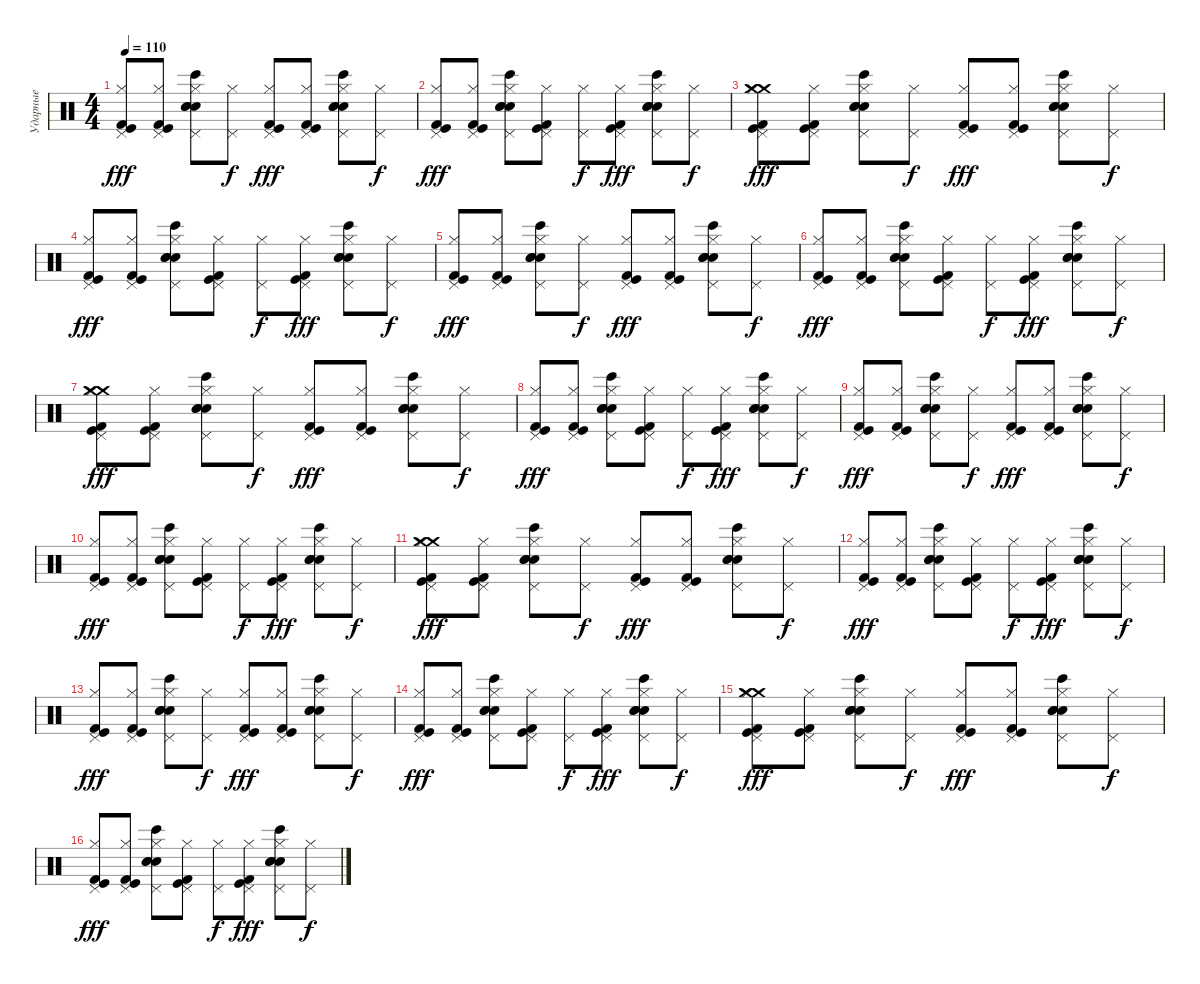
\track ("Ударные" "Ударные") {instrument percussion}
\staff {score}
\articulation defaults
\ts (4 4)
\tempo 110
\clef neutral
\ks c
("Kick (hit) 2" "Kick (hit)" "Hi-Hat (closed)" "Pedal Hi-Hat (hit)").8{dy fff} ("Kick (hit) 2" "Kick (hit)" "Hi-Hat (closed)" "Pedal Hi-Hat (hit)").8 ("Bongo High (hit)" "Snare (hit) 2" "Snare (hit) 2" "Snare (hit) 2" "Hi-Hat (closed)" "Pedal Hi-Hat (hit)").8 ("Hi-Hat (closed)" "Pedal Hi-Hat (hit)").8{dy f} ("Kick (hit) 2" "Kick (hit)" "Hi-Hat (closed)" "Pedal Hi-Hat (hit)").8{dy fff} ("Kick (hit) 2" "Kick (hit)" "Hi-Hat (closed)" "Pedal Hi-Hat (hit)").8 ("Bongo High (hit)" "Snare (hit) 2" "Snare (hit) 2" "Snare (hit) 2" "Hi-Hat (closed)" "Pedal Hi-Hat (hit)").8 ("Hi-Hat (closed)" "Pedal Hi-Hat (hit)").8{dy f} |
("Kick (hit) 2" "Kick (hit)" "Hi-Hat (closed)" "Pedal Hi-Hat (hit)").8{dy fff} ("Kick (hit) 2" "Kick (hit)" "Hi-Hat (closed)" "Pedal Hi-Hat (hit)").8 ("Bongo High (hit)" "Snare (hit) 2" "Snare (hit) 2" "Snare (hit) 2" "Hi-Hat (closed)" "Pedal Hi-Hat (hit)").8 ("Kick (hit) 2" "Kick (hit)" "Hi-Hat (closed)" "Pedal Hi-Hat (hit)").8 ("Hi-Hat (closed)" "Pedal Hi-Hat (hit)").8{dy f} ("Kick (hit) 2" "Kick (hit)" "Hi-Hat (closed)" "Pedal Hi-Hat (hit)").8{dy fff} ("Bongo High (hit)" "Snare (hit) 2" "Snare (hit) 2" "Snare (hit) 2" "Hi-Hat (closed)" "Pedal Hi-Hat (hit)").8 ("Hi-Hat (closed)" "Pedal Hi-Hat (hit)").8{dy f} |
("Crash medium (hit)" "Crash medium (hit)" "Kick (hit) 2" "Kick (hit)" "Hi-Hat (closed)" "Pedal Hi-Hat (hit)").8{dy fff} ("Kick (hit) 2" "Kick (hit)" "Hi-Hat (closed)" "Pedal Hi-Hat (hit)").8 ("Bongo High (hit)" "Snare (hit) 2" "Snare (hit) 2" "Snare (hit) 2" "Hi-Hat (closed)" "Pedal Hi-Hat (hit)").8 ("Hi-Hat (closed)" "Pedal Hi-Hat (hit)").8{dy f} ("Kick (hit) 2" "Kick (hit)" "Hi-Hat (closed)" "Pedal Hi-Hat (hit)").8{dy fff} ("Kick (hit) 2" "Kick (hit)" "Hi-Hat (closed)" "Pedal Hi-Hat (hit)").8 ("Bongo High (hit)" "Snare (hit) 2" "Snare (hit) 2" "Snare (hit) 2" "Hi-Hat (closed)" "Pedal Hi-Hat (hit)").8 ("Hi-Hat (closed)" "Pedal Hi-Hat (hit)").8{dy f} |
("Kick (hit) 2" "Kick (hit)" "Hi-Hat (closed)" "Pedal Hi-Hat (hit)").8{dy fff} ("Kick (hit) 2" "Kick (hit)" "Hi-Hat (closed)" "Pedal Hi-Hat (hit)").8 ("Bongo High (hit)" "Snare (hit) 2" "Snare (hit) 2" "Snare (hit) 2" "Hi-Hat (closed)" "Pedal Hi-Hat (hit)").8 ("Kick (hit) 2" "Kick (hit)" "Hi-Hat (closed)" "Pedal Hi-Hat (hit)").8 ("Hi-Hat (closed)" "Pedal Hi-Hat (hit)").8{dy f} ("Kick (hit) 2" "Kick (hit)" "Hi-Hat (closed)" "Pedal Hi-Hat (hit)").8{dy fff} ("Bongo High (hit)" "Snare (hit) 2" "Snare (hit) 2" "Snare (hit) 2" "Hi-Hat (closed)" "Pedal Hi-Hat (hit)").8 ("Hi-Hat (closed)" "Pedal Hi-Hat (hit)").8{dy f} |
("Kick (hit) 2" "Kick (hit)" "Hi-Hat (closed)" "Pedal Hi-Hat (hit)").8{dy fff} ("Kick (hit) 2" "Kick (hit)" "Hi-Hat (closed)" "Pedal Hi-Hat (hit)").8 ("Bongo High (hit)" "Snare (hit) 2" "Snare (hit) 2" "Snare (hit) 2" "Hi-Hat (closed)" "Pedal Hi-Hat (hit)").8 ("Hi-Hat (closed)" "Pedal Hi-Hat (hit)").8{dy f} ("Kick (hit) 2" "Kick (hit)" "Hi-Hat (closed)" "Pedal Hi-Hat (hit)").8{dy fff} ("Kick (hit) 2" "Kick (hit)" "Hi-Hat (closed)" "Pedal Hi-Hat (hit)").8 ("Bongo High (hit)" "Snare (hit) 2" "Snare (hit) 2" "Snare (hit) 2" "Hi-Hat (closed)" "Pedal Hi-Hat (hit)").8 ("Hi-Hat (closed)" "Pedal Hi-Hat (hit)").8{dy f} |
("Kick (hit) 2" "Kick (hit)" "Hi-Hat (closed)" "Pedal Hi-Hat (hit)").8{dy fff} ("Kick (hit) 2" "Kick (hit)" "Hi-Hat (closed)" "Pedal Hi-Hat (hit)").8 ("Bongo High (hit)" "Snare (hit) 2" "Snare (hit) 2" "Snare (hit) 2" "Hi-Hat (closed)" "Pedal Hi-Hat (hit)").8 ("Kick (hit) 2" "Kick (hit)" "Hi-Hat (closed)" "Pedal Hi-Hat (hit)").8 ("Hi-Hat (closed)" "Pedal Hi-Hat (hit)").8{dy f} ("Kick (hit) 2" "Kick (hit)" "Hi-Hat (closed)" "Pedal Hi-Hat (hit)").8{dy fff} ("Bongo High (hit)" "Snare (hit) 2" "Snare (hit) 2" "Snare (hit) 2" "Hi-Hat (closed)" "Pedal Hi-Hat (hit)").8 ("Hi-Hat (closed)" "Pedal Hi-Hat (hit)").8{dy f} |
("Crash medium (hit)" "Crash medium (hit)" "Kick (hit) 2" "Kick (hit)" "Hi-Hat (closed)" "Pedal Hi-Hat (hit)").8{dy fff} ("Kick (hit) 2" "Kick (hit)" "Hi-Hat (closed)" "Pedal Hi-Hat (hit)").8 ("Bongo High (hit)" "Snare (hit) 2" "Snare (hit) 2" "Snare (hit) 2" "Hi-Hat (closed)" "Pedal Hi-Hat (hit)").8 ("Hi-Hat (closed)" "Pedal Hi-Hat (hit)").8{dy f} ("Kick (hit) 2" "Kick (hit)" "Hi-Hat (closed)" "Pedal Hi-Hat (hit)").8{dy fff} ("Kick (hit) 2" "Kick (hit)" "Hi-Hat (closed)" "Pedal Hi-Hat (hit)").8 ("Bongo High (hit)" "Snare (hit) 2" "Snare (hit) 2" "Snare (hit) 2" "Hi-Hat (closed)" "Pedal Hi-Hat (hit)").8 ("Hi-Hat (closed)" "Pedal Hi-Hat (hit)").8{dy f} |
("Kick (hit) 2" "Kick (hit)" "Hi-Hat (closed)" "Pedal Hi-Hat (hit)").8{dy fff} ("Kick (hit) 2" "Kick (hit)" "Hi-Hat (closed)" "Pedal Hi-Hat (hit)").8 ("Bongo High (hit)" "Snare (hit) 2" "Snare (hit) 2" "Snare (hit) 2" "Hi-Hat (closed)" "Pedal Hi-Hat (hit)").8 ("Kick (hit) 2" "Kick (hit)" "Hi-Hat (closed)" "Pedal Hi-Hat (hit)").8 ("Hi-Hat (closed)" "Pedal Hi-Hat (hit)").8{dy f} ("Kick (hit) 2" "Kick (hit)" "Hi-Hat (closed)" "Pedal Hi-Hat (hit)").8{dy fff} ("Bongo High (hit)" "Snare (hit) 2" "Snare (hit) 2" "Snare (hit) 2" "Hi-Hat (closed)" "Pedal Hi-Hat (hit)").8 ("Hi-Hat (closed)" "Pedal Hi-Hat (hit)").8{dy f} |
("Kick (hit) 2" "Kick (hit)" "Hi-Hat (closed)" "Pedal Hi-Hat (hit)").8{dy fff} ("Kick (hit) 2" "Kick (hit)" "Hi-Hat (closed)" "Pedal Hi-Hat (hit)").8 ("Bongo High (hit)" "Snare (hit) 2" "Snare (hit) 2" "Snare (hit) 2" "Hi-Hat (closed)" "Pedal Hi-Hat (hit)").8 ("Hi-Hat (closed)" "Pedal Hi-Hat (hit)").8{dy f} ("Kick (hit) 2" "Kick (hit)" "Hi-Hat (closed)" "Pedal Hi-Hat (hit)").8{dy fff} ("Kick (hit) 2" "Kick (hit)" "Hi-Hat (closed)" "Pedal Hi-Hat (hit)").8 ("Bongo High (hit)" "Snare (hit) 2" "Snare (hit) 2" "Snare (hit) 2" "Hi-Hat (closed)" "Pedal Hi-Hat (hit)").8 ("Hi-Hat (closed)" "Pedal Hi-Hat (hit)").8{dy f} |
("Kick (hit) 2" "Kick (hit)" "Hi-Hat (closed)" "Pedal Hi-Hat (hit)").8{dy fff} ("Kick (hit) 2" "Kick (hit)" "Hi-Hat (closed)" "Pedal Hi-Hat (hit)").8 ("Bongo High (hit)" "Snare (hit) 2" "Snare (hit) 2" "Snare (hit) 2" "Hi-Hat (closed)" "Pedal Hi-Hat (hit)").8 ("Kick (hit) 2" "Kick (hit)" "Hi-Hat (closed)" "Pedal Hi-Hat (hit)").8 ("Hi-Hat (closed)" "Pedal Hi-Hat (hit)").8{dy f} ("Kick (hit) 2" "Kick (hit)" "Hi-Hat (closed)" "Pedal Hi-Hat (hit)").8{dy fff} ("Bongo High (hit)" "Snare (hit) 2" "Snare (hit) 2" "Snare (hit) 2" "Hi-Hat (closed)" "Pedal Hi-Hat (hit)").8 ("Hi-Hat (closed)" "Pedal Hi-Hat (hit)").8{dy f} |
("Crash medium (hit)" "Crash medium (hit)" "Kick (hit) 2" "Kick (hit)" "Hi-Hat (closed)" "Pedal Hi-Hat (hit)").8{dy fff} ("Kick (hit) 2" "Kick (hit)" "Hi-Hat (closed)" "Pedal Hi-Hat (hit)").8 ("Bongo High (hit)" "Snare (hit) 2" "Snare (hit) 2" "Snare (hit) 2" "Hi-Hat (closed)" "Pedal Hi-Hat (hit)").8 ("Hi-Hat (closed)" "Pedal Hi-Hat (hit)").8{dy f} ("Kick (hit) 2" "Kick (hit)" "Hi-Hat (closed)" "Pedal Hi-Hat (hit)").8{dy fff} ("Kick (hit) 2" "Kick (hit)" "Hi-Hat (closed)" "Pedal Hi-Hat (hit)").8 ("Bongo High (hit)" "Snare (hit) 2" "Snare (hit) 2" "Snare (hit) 2" "Hi-Hat (closed)" "Pedal Hi-Hat (hit)").8 ("Hi-Hat (closed)" "Pedal Hi-Hat (hit)").8{dy f} |
("Kick (hit) 2" "Kick (hit)" "Hi-Hat (closed)" "Pedal Hi-Hat (hit)").8{dy fff} ("Kick (hit) 2" "Kick (hit)" "Hi-Hat (closed)" "Pedal Hi-Hat (hit)").8 ("Bongo High (hit)" "Snare (hit) 2" "Snare (hit) 2" "Snare (hit) 2" "Hi-Hat (closed)" "Pedal Hi-Hat (hit)").8 ("Kick (hit) 2" "Kick (hit)" "Hi-Hat (closed)" "Pedal Hi-Hat (hit)").8 ("Hi-Hat (closed)" "Pedal Hi-Hat (hit)").8{dy f} ("Kick (hit) 2" "Kick (hit)" "Hi-Hat (closed)" "Pedal Hi-Hat (hit)").8{dy fff} ("Bongo High (hit)" "Snare (hit) 2" "Snare (hit) 2" "Snare (hit) 2" "Hi-Hat (closed)" "Pedal Hi-Hat (hit)").8 ("Hi-Hat (closed)" "Pedal Hi-Hat (hit)").8{dy f} |
("Kick (hit) 2" "Kick (hit)" "Hi-Hat (closed)" "Pedal Hi-Hat (hit)").8{dy fff} ("Kick (hit) 2" "Kick (hit)" "Hi-Hat (closed)" "Pedal Hi-Hat (hit)").8 ("Bongo High (hit)" "Snare (hit) 2" "Snare (hit) 2" "Snare (hit) 2" "Hi-Hat (closed)" "Pedal Hi-Hat (hit)").8 ("Hi-Hat (closed)" "Pedal Hi-Hat (hit)").8{dy f} ("Kick (hit) 2" "Kick (hit)" "Hi-Hat (closed)" "Pedal Hi-Hat (hit)").8{dy fff} ("Kick (hit) 2" "Kick (hit)" "Hi-Hat (closed)" "Pedal Hi-Hat (hit)").8 ("Bongo High (hit)" "Snare (hit) 2" "Snare (hit) 2" "Snare (hit) 2" "Hi-Hat (closed)" "Pedal Hi-Hat (hit)").8 ("Hi-Hat (closed)" "Pedal Hi-Hat (hit)").8{dy f} |
("Kick (hit) 2" "Kick (hit)" "Hi-Hat (closed)" "Pedal Hi-Hat (hit)").8{dy fff} ("Kick (hit) 2" "Kick (hit)" "Hi-Hat (closed)" "Pedal Hi-Hat (hit)").8 ("Bongo High (hit)" "Snare (hit) 2" "Snare (hit) 2" "Snare (hit) 2" "Hi-Hat (closed)" "Pedal Hi-Hat (hit)").8 ("Kick (hit) 2" "Kick (hit)" "Hi-Hat (closed)" "Pedal Hi-Hat (hit)").8 ("Hi-Hat (closed)" "Pedal Hi-Hat (hit)").8{dy f} ("Kick (hit) 2" "Kick (hit)" "Hi-Hat (closed)" "Pedal Hi-Hat (hit)").8{dy fff} ("Bongo High (hit)" "Snare (hit) 2" "Snare (hit) 2" "Snare (hit) 2" "Hi-Hat (closed)" "Pedal Hi-Hat (hit)").8 ("Hi-Hat (closed)" "Pedal Hi-Hat (hit)").8{dy f} |
("Crash medium (hit)" "Crash medium (hit)" "Kick (hit) 2" "Kick (hit)" "Hi-Hat (closed)" "Pedal Hi-Hat (hit)").8{dy fff} ("Kick (hit) 2" "Kick (hit)" "Hi-Hat (closed)" "Pedal Hi-Hat (hit)").8 ("Bongo High (hit)" "Snare (hit) 2" "Snare (hit) 2" "Snare (hit) 2" "Hi-Hat (closed)" "Pedal Hi-Hat (hit)").8 ("Hi-Hat (closed)" "Pedal Hi-Hat (hit)").8{dy f} ("Kick (hit) 2" "Kick (hit)" "Hi-Hat (closed)" "Pedal Hi-Hat (hit)").8{dy fff} ("Kick (hit) 2" "Kick (hit)" "Hi-Hat (closed)" "Pedal Hi-Hat (hit)").8 ("Bongo High (hit)" "Snare (hit) 2" "Snare (hit) 2" "Snare (hit) 2" "Hi-Hat (closed)" "Pedal Hi-Hat (hit)").8 ("Hi-Hat (closed)" "Pedal Hi-Hat (hit)").8{dy f} |
("Kick (hit) 2" "Kick (hit)" "Hi-Hat (closed)" "Pedal Hi-Hat (hit)").8{dy fff} ("Kick (hit) 2" "Kick (hit)" "Hi-Hat (closed)" "Pedal Hi-Hat (hit)").8 ("Bongo High (hit)" "Snare (hit) 2" "Snare (hit) 2" "Snare (hit) 2" "Hi-Hat (closed)" "Pedal Hi-Hat (hit)").8 ("Kick (hit) 2" "Kick (hit)" "Hi-Hat (closed)" "Pedal Hi-Hat (hit)").8 ("Hi-Hat (closed)" "Pedal Hi-Hat (hit)").8{dy f} ("Kick (hit) 2" "Kick (hit)" "Hi-Hat (closed)" "Pedal Hi-Hat (hit)").8{dy fff} ("Bongo High (hit)" "Snare (hit) 2" "Snare (hit) 2" "Snare (hit) 2" "Hi-Hat (closed)" "Pedal Hi-Hat (hit)").8 ("Hi-Hat (closed)" "Pedal Hi-Hat (hit)").8{dy f}
